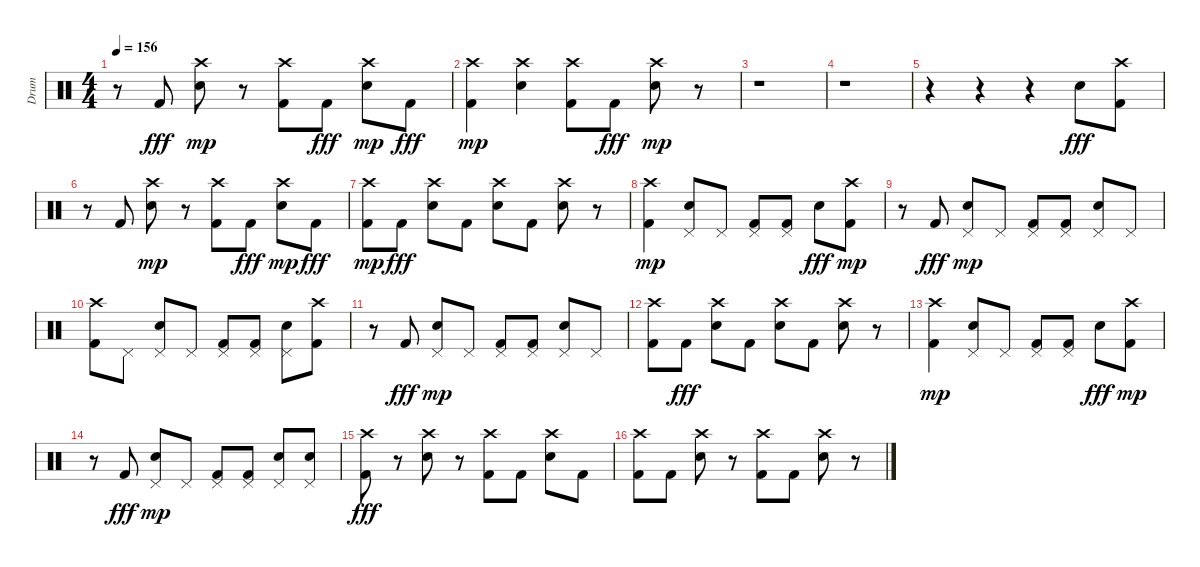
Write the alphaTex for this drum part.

\track ("Drum" "Drum") {instrument percussion}
\staff {score}
\articulation defaults
\ts (4 4)
\tempo 156
\clef neutral
\ks c
r.8{dy fff} "Kick (hit) 2".8 ("Electric Snare (hit)" "Crash high (hit)").8{dy mp} r.8 ("Kick (hit) 2" "Crash high (hit)").8 "Kick (hit) 2".8{dy fff} ("Electric Snare (hit)" "Crash high (hit)").8{dy mp} "Kick (hit) 2".8{dy fff} |
("Kick (hit) 2" "Crash high (hit)").4{dy mp} ("Electric Snare (hit)" "Crash high (hit)").4 ("Kick (hit) 2" "Crash high (hit)").8 "Kick (hit) 2".8{dy fff} ("Electric Snare (hit)" "Crash high (hit)").8{dy mp} r.8 |
r.1 |
r.1 |
r.4 r.4 r.4 "Electric Snare (hit)".8{dy fff} ("Kick (hit) 2" "Crash high (hit)").8 |
r.8 "Kick (hit) 2".8 ("Electric Snare (hit)" "Crash high (hit)").8{dy mp} r.8 ("Kick (hit) 2" "Crash high (hit)").8 "Kick (hit) 2".8{dy fff} ("Electric Snare (hit)" "Crash high (hit)").8{dy mp} "Kick (hit) 2".8{dy fff} |
("Kick (hit) 2" "Crash high (hit)").8{dy mp} "Kick (hit) 2".8{dy fff} ("Electric Snare (hit)" "Crash high (hit)").8 "Kick (hit) 2".8 ("Electric Snare (hit)" "Crash high (hit)").8 "Kick (hit) 2".8 ("Electric Snare (hit)" "Crash high (hit)").8 r.8 |
("Kick (hit) 2" "Crash high (hit)").4{dy mp} ("Electric Snare (hit)" "Pedal Hi-Hat (hit)").8 "Pedal Hi-Hat (hit)".8 ("Kick (hit) 2" "Pedal Hi-Hat (hit)").8 ("Kick (hit) 2" "Pedal Hi-Hat (hit)").8 "Electric Snare (hit)".8{dy fff} ("Kick (hit) 2" "Crash high (hit)").8{dy mp} |
r.8 "Kick (hit) 2".8{dy fff} ("Electric Snare (hit)" "Pedal Hi-Hat (hit)").8{dy mp} "Pedal Hi-Hat (hit)".8 ("Kick (hit) 2" "Pedal Hi-Hat (hit)").8 ("Kick (hit) 2" "Pedal Hi-Hat (hit)").8 ("Electric Snare (hit)" "Pedal Hi-Hat (hit)").8 "Pedal Hi-Hat (hit)".8 |
("Kick (hit) 2" "Crash high (hit)").8 "Pedal Hi-Hat (hit)".8 ("Electric Snare (hit)" "Pedal Hi-Hat (hit)").8 "Pedal Hi-Hat (hit)".8 ("Kick (hit) 2" "Pedal Hi-Hat (hit)").8 ("Kick (hit) 2" "Pedal Hi-Hat (hit)").8 ("Electric Snare (hit)" "Pedal Hi-Hat (hit)").8 ("Kick (hit) 2" "Crash high (hit)").8 |
r.8 "Kick (hit) 2".8{dy fff} ("Electric Snare (hit)" "Pedal Hi-Hat (hit)").8{dy mp} "Pedal Hi-Hat (hit)".8 ("Kick (hit) 2" "Pedal Hi-Hat (hit)").8 ("Kick (hit) 2" "Pedal Hi-Hat (hit)").8 ("Electric Snare (hit)" "Pedal Hi-Hat (hit)").8 "Pedal Hi-Hat (hit)".8 |
("Kick (hit) 2" "Crash high (hit)").8 "Kick (hit) 2".8{dy fff} ("Electric Snare (hit)" "Crash high (hit)").8 "Kick (hit) 2".8 ("Electric Snare (hit)" "Crash high (hit)").8 "Kick (hit) 2".8 ("Electric Snare (hit)" "Crash high (hit)").8 r.8 |
("Kick (hit) 2" "Crash high (hit)").4{dy mp} ("Electric Snare (hit)" "Pedal Hi-Hat (hit)").8 "Pedal Hi-Hat (hit)".8 ("Kick (hit) 2" "Pedal Hi-Hat (hit)").8 ("Kick (hit) 2" "Pedal Hi-Hat (hit)").8 "Electric Snare (hit)".8{dy fff} ("Kick (hit) 2" "Crash high (hit)").8{dy mp} |
r.8 "Kick (hit) 2".8{dy fff} ("Electric Snare (hit)" "Pedal Hi-Hat (hit)").8{dy mp} "Pedal Hi-Hat (hit)".8 ("Kick (hit) 2" "Pedal Hi-Hat (hit)").8 ("Kick (hit) 2" "Pedal Hi-Hat (hit)").8 ("Electric Snare (hit)" "Pedal Hi-Hat (hit)").8 ("Electric Snare (hit)"{tr (40 32)} "Pedal Hi-Hat (hit)").8 |
("Kick (hit) 2" "Crash high (hit)").8{dy fff} r.8 ("Electric Snare (hit)" "Crash high (hit)").8 r.8 ("Kick (hit) 2" "Crash high (hit)").8 "Kick (hit) 2".8 ("Electric Snare (hit)" "Crash high (hit)").8 "Kick (hit) 2".8 |
("Kick (hit) 2" "Crash high (hit)").8 "Kick (hit) 2".8 ("Electric Snare (hit)" "Crash high (hit)").8 r.8 ("Kick (hit) 2" "Crash high (hit)").8 "Kick (hit) 2".8 ("Electric Snare (hit)" "Crash high (hit)").8 r.8
